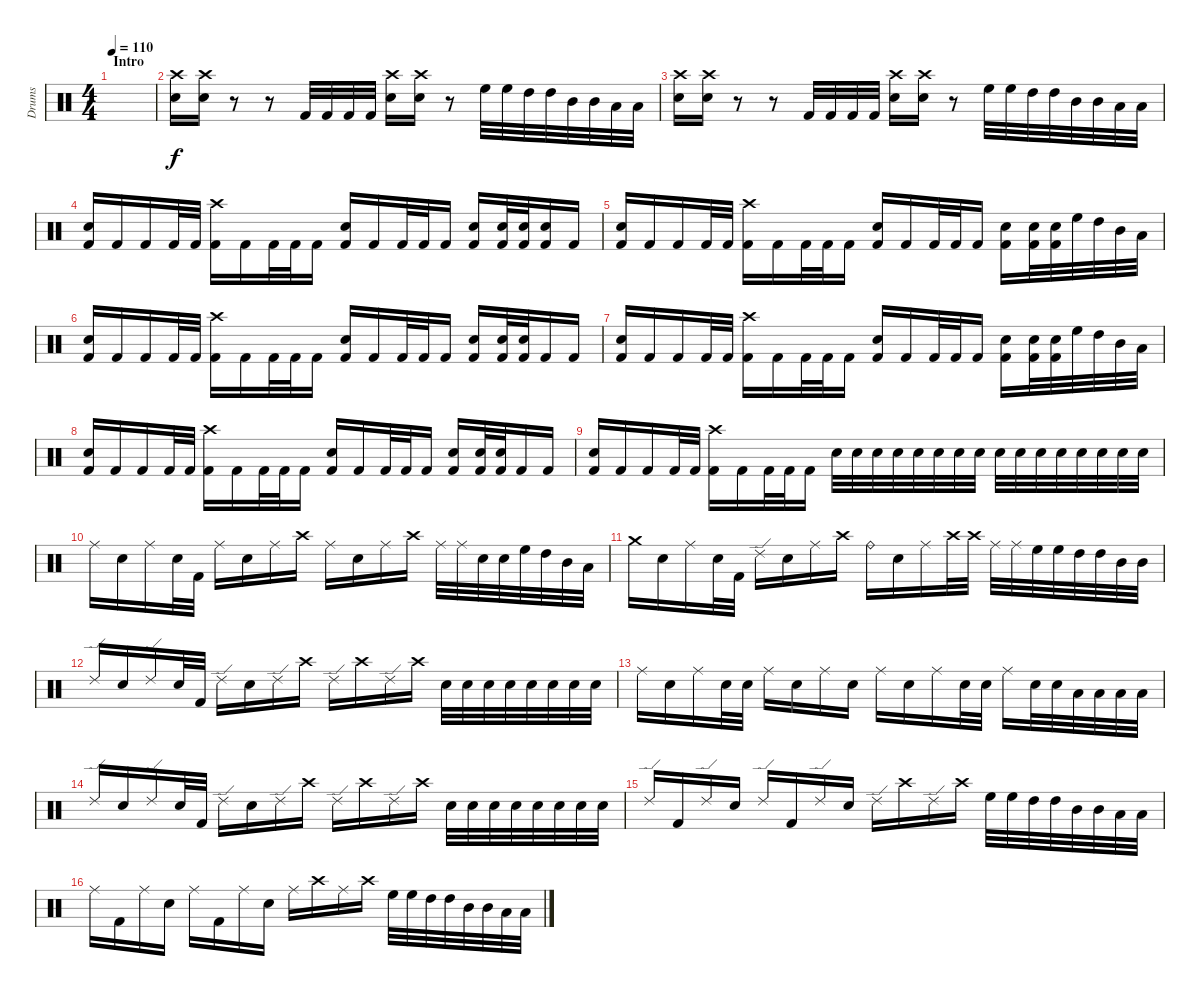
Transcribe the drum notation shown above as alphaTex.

\track ("Drums" "Drums") {instrument percussion}
\staff {score}
\articulation defaults
\ts (4 4)
\section ("" "Intro")
\tempo 110
\clef neutral
\ks c
|
("Snare (hit) 2" "Crash high (hit)").16 ("Snare (hit) 2" "Crash high (hit)").16 r.8 r.8 "Kick (hit) 2".32 "Kick (hit) 2".32 "Kick (hit) 2".32 "Kick (hit) 2".32 ("Electric Snare (hit)" "Crash high (hit)").16 ("Electric Snare (hit)" "Crash high (hit)").16 r.8 "High Floor Tom (hit)".32 "High Floor Tom (hit)".32 "High Tom (hit)".32 "High Tom (hit)".32 "Mid Tom (hit)".32 "Mid Tom (hit)".32 "Low Tom (hit)".32 "Low Tom (hit)".32 |
("Snare (hit) 2" "Crash high (hit)").16 ("Snare (hit) 2" "Crash high (hit)").16 r.8 r.8 "Kick (hit) 2".32 "Kick (hit) 2".32 "Kick (hit) 2".32 "Kick (hit) 2".32 ("Electric Snare (hit)" "Crash high (hit)").16 ("Electric Snare (hit)" "Crash high (hit)").16 r.8 "High Floor Tom (hit)".32 "High Floor Tom (hit)".32 "High Tom (hit)".32 "High Tom (hit)".32 "Mid Tom (hit)".32 "Mid Tom (hit)".32 "Low Tom (hit)".32 "Low Tom (hit)".32 |
("Snare (hit) 2" "Kick (hit) 2").16 "Kick (hit) 2".16 "Kick (hit) 2".16 "Kick (hit) 2".32 "Kick (hit) 2".32 ("Crash high (hit)" "Kick (hit) 2").16 "Kick (hit) 2".16 "Kick (hit) 2".32 "Kick (hit) 2".32 "Kick (hit) 2".16 ("Snare (hit) 2" "Kick (hit) 2").16 "Kick (hit) 2".16 "Kick (hit) 2".32 "Kick (hit) 2".32 "Kick (hit) 2".16 ("Snare (hit) 2" "Kick (hit) 2").16 ("Snare (hit) 2" "Kick (hit) 2").32 ("Snare (hit) 2" "Kick (hit) 2").32 ("Snare (hit) 2" "Kick (hit) 2").16 "Kick (hit) 2".16 |
("Snare (hit) 2" "Kick (hit) 2").16 "Kick (hit) 2".16 "Kick (hit) 2".16 "Kick (hit) 2".32 "Kick (hit) 2".32 ("Crash high (hit)" "Kick (hit) 2").16 "Kick (hit) 2".16 "Kick (hit) 2".32 "Kick (hit) 2".32 "Kick (hit) 2".16 ("Snare (hit) 2" "Kick (hit) 2").16 "Kick (hit) 2".16 "Kick (hit) 2".32 "Kick (hit) 2".32 "Kick (hit) 2".16 ("Snare (hit) 2" "Kick (hit) 2").16 ("Snare (hit) 2" "Kick (hit) 2").32 ("Snare (hit) 2" "Kick (hit) 2").32 "High Floor Tom (hit)".32 "High Tom (hit)".32 "Mid Tom (hit)".32 "Low Tom (hit)".32 |
("Snare (hit) 2" "Kick (hit) 2").16 "Kick (hit) 2".16 "Kick (hit) 2".16 "Kick (hit) 2".32 "Kick (hit) 2".32 ("Crash high (hit)" "Kick (hit) 2").16 "Kick (hit) 2".16 "Kick (hit) 2".32 "Kick (hit) 2".32 "Kick (hit) 2".16 ("Snare (hit) 2" "Kick (hit) 2").16 "Kick (hit) 2".16 "Kick (hit) 2".32 "Kick (hit) 2".32 "Kick (hit) 2".16 ("Snare (hit) 2" "Kick (hit) 2").16 ("Snare (hit) 2" "Kick (hit) 2").32 ("Snare (hit) 2" "Kick (hit) 2").32 "Kick (hit) 2".16 "Kick (hit) 2".16 |
("Snare (hit) 2" "Kick (hit) 2").16 "Kick (hit) 2".16 "Kick (hit) 2".16 "Kick (hit) 2".32 "Kick (hit) 2".32 ("Crash high (hit)" "Kick (hit) 2").16 "Kick (hit) 2".16 "Kick (hit) 2".32 "Kick (hit) 2".32 "Kick (hit) 2".16 ("Snare (hit) 2" "Kick (hit) 2").16 "Kick (hit) 2".16 "Kick (hit) 2".32 "Kick (hit) 2".32 "Kick (hit) 2".16 ("Snare (hit) 2" "Kick (hit) 2").16 ("Snare (hit) 2" "Kick (hit) 2").32 ("Snare (hit) 2" "Kick (hit) 2").32 "High Floor Tom (hit)".32 "High Tom (hit)".32 "Mid Tom (hit)".32 "Low Tom (hit)".32 |
("Snare (hit) 2" "Kick (hit) 2").16 "Kick (hit) 2".16 "Kick (hit) 2".16 "Kick (hit) 2".32 "Kick (hit) 2".32 ("Crash high (hit)" "Kick (hit) 2").16 "Kick (hit) 2".16 "Kick (hit) 2".32 "Kick (hit) 2".32 "Kick (hit) 2".16 ("Snare (hit) 2" "Kick (hit) 2").16 "Kick (hit) 2".16 "Kick (hit) 2".32 "Kick (hit) 2".32 "Kick (hit) 2".16 ("Snare (hit) 2" "Kick (hit) 2").16 ("Snare (hit) 2" "Kick (hit) 2").32 ("Snare (hit) 2" "Kick (hit) 2").32 "Kick (hit) 2".16 "Kick (hit) 2".16 |
("Snare (hit) 2" "Kick (hit) 2").16 "Kick (hit) 2".16 "Kick (hit) 2".16 "Kick (hit) 2".32 "Kick (hit) 2".32 ("Crash high (hit)" "Kick (hit) 2").16 "Kick (hit) 2".16 "Kick (hit) 2".32 "Kick (hit) 2".32 "Kick (hit) 2".16 "Snare (hit) 2".32 "Snare (hit) 2".32 "Snare (hit) 2".32 "Snare (hit) 2".32 "Snare (hit) 2".32 "Snare (hit) 2".32 "Snare (hit) 2".32 "Snare (hit) 2".32 "Snare (hit) 2".32 "Snare (hit) 2".32 "Snare (hit) 2".32 "Snare (hit) 2".32 "Snare (hit) 2".32 "Snare (hit) 2".32 "Snare (hit) 2".32 "Snare (hit) 2".32 |
"Ride (middle)".16 "Snare (hit) 2".16 "Ride (middle)".16 "Snare (hit) 2".32 "Kick (hit) 2".32 "Ride (middle)".16 "Snare (hit) 2".16 "Ride (middle)".16 "Crash high (hit)".16 "Ride (middle)".16 "Snare (hit) 2".16 "Ride (middle)".16 "Crash high (hit)".16 "Ride (middle)".32 "Ride (middle)".32 "Snare (hit) 2".32 "Snare (hit) 2".32 "High Floor Tom (hit)".32 "High Tom (hit)".32 "Mid Tom (hit)".32 "Low Tom (hit)".32 |
"Crash medium (hit)".16 "Snare (hit) 2".16 "Ride (middle)".16 "Snare (hit) 2".32 "Kick (hit) 2".32 "Ride (edge) 2".16 "Snare (hit) 2".16 "Ride (middle)".16 "Crash high (hit)".16 "Ride (bell)".16 "Snare (hit) 2".16 "Ride (middle)".16 "Crash high (hit)".32 "Crash high (hit)".32 "Ride (middle)".32 "Ride (middle)".32 "High Floor Tom (hit)".32 "High Floor Tom (hit)".32 "High Tom (hit)".32 "High Tom (hit)".32 "Mid Tom (hit)".32 "Mid Tom (hit)".32 |
"Ride (edge) 2".16 "Snare (hit) 2".16 "Ride (edge) 2".16 "Snare (hit) 2".32 "Kick (hit) 2".32 "Ride (edge) 2".16 "Snare (hit) 2".16 "Ride (edge) 2".16 "Crash high (hit)".16 "Ride (edge) 2".16 "Crash high (hit)".16 "Ride (edge) 2".16 "Crash high (hit)".16 "Snare (hit) 2".32 "Snare (hit) 2".32 "Snare (hit) 2".32 "Snare (hit) 2".32 "Snare (hit) 2".32 "Snare (hit) 2".32 "Snare (hit) 2".32 "Snare (hit) 2".32 |
"Ride (middle)".16 "Snare (hit) 2".16 "Ride (middle)".16 "Snare (hit) 2".32 "Snare (hit) 2".32 "Ride (middle)".16 "Snare (hit) 2".16 "Ride (middle)".16 "Snare (hit) 2".16 "Ride (middle)".16 "Snare (hit) 2".16 "Ride (middle)".16 "Snare (hit) 2".32 "Snare (hit) 2".32 "Ride (middle)".16 "Snare (hit) 2".32 "Snare (hit) 2".32 "Low Tom (hit)".32 "Low Tom (hit)".32 "Low Tom (hit)".32 "Low Tom (hit)".32 |
"Ride (edge) 2".16 "Snare (hit) 2".16 "Ride (edge) 2".16 "Snare (hit) 2".32 "Kick (hit) 2".32 "Ride (edge) 2".16 "Snare (hit) 2".16 "Ride (edge) 2".16 "Crash high (hit)".16 "Ride (edge) 2".16 "Crash high (hit)".16 "Ride (edge) 2".16 "Crash high (hit)".16 "Snare (hit) 2".32 "Snare (hit) 2".32 "Snare (hit) 2".32 "Snare (hit) 2".32 "Snare (hit) 2".32 "Snare (hit) 2".32 "Snare (hit) 2".32 "Snare (hit) 2".32 |
"Ride (edge) 2".16 "Kick (hit) 2".16 "Ride (edge) 2".16 "Snare (hit) 2".16 "Ride (edge) 2".16 "Kick (hit) 2".16 "Ride (edge) 2".16 "Snare (hit) 2".16 "Ride (edge) 2".16 "Crash high (hit)".16 "Ride (edge) 2".16 "Crash high (hit)".16 "High Floor Tom (hit)".32 "High Floor Tom (hit)".32 "High Tom (hit)".32 "High Tom (hit)".32 "Mid Tom (hit)".32 "Mid Tom (hit)".32 "Low Tom (hit)".32 "Low Tom (hit)".32 |
"Ride (middle)".16 "Kick (hit) 2".16 "Ride (middle)".16 "Snare (hit) 2".16 "Ride (middle)".16 "Kick (hit) 2".16 "Ride (middle)".16 "Snare (hit) 2".16 "Ride (middle)".16 "Crash high (hit)".16 "Ride (middle)".16 "Crash high (hit)".16 "High Floor Tom (hit)".32 "High Floor Tom (hit)".32 "High Tom (hit)".32 "High Tom (hit)".32 "Mid Tom (hit)".32 "Mid Tom (hit)".32 "Low Tom (hit)".32 "Low Tom (hit)".32
